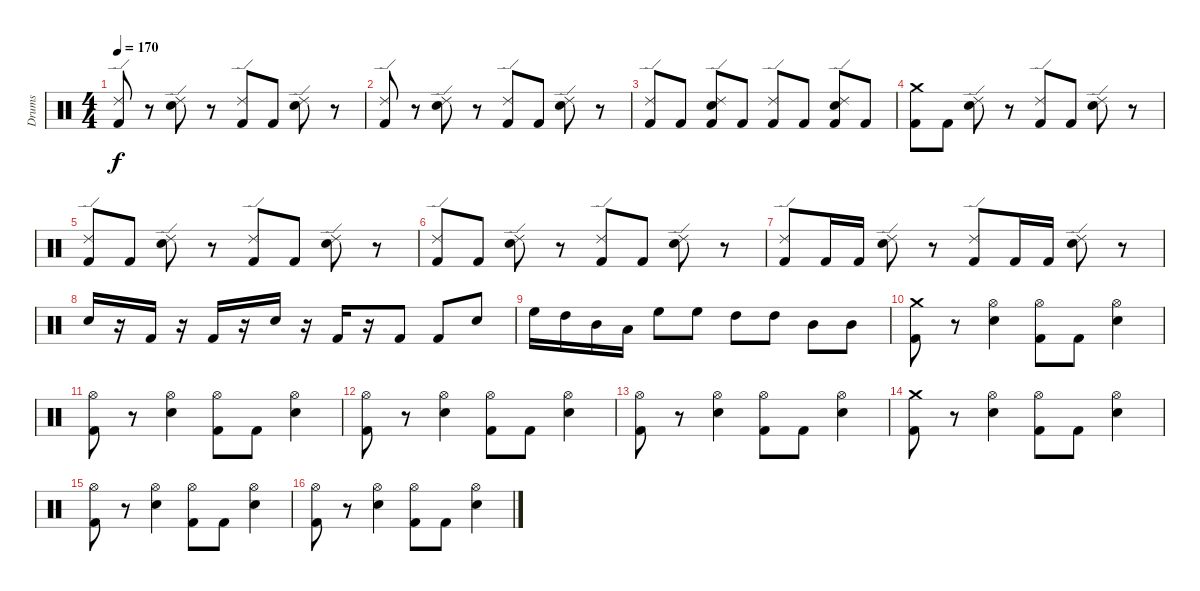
\track ("Drums" "Drums") {instrument percussion}
\staff {score}
\articulation defaults
\ts (4 4)
\tempo 170
\clef neutral
\ks c
("Ride (edge) 2" "Kick (hit) 2").8{dy f} r.8 ("Ride (edge) 2" "Electric Snare (hit)").8 r.8 ("Ride (edge) 2" "Kick (hit) 2").8 "Kick (hit) 2".8 ("Ride (edge) 2" "Electric Snare (hit)").8 r.8 |
("Ride (edge) 2" "Kick (hit) 2").8 r.8 ("Ride (edge) 2" "Electric Snare (hit)").8 r.8 ("Ride (edge) 2" "Kick (hit) 2").8 "Kick (hit) 2".8 ("Ride (edge) 2" "Electric Snare (hit)").8 r.8 |
("Ride (edge) 2" "Kick (hit) 2").8 "Kick (hit) 2".8 ("Kick (hit) 2" "Ride (edge) 2" "Electric Snare (hit)").8 "Kick (hit) 2".8 ("Kick (hit) 2" "Ride (edge) 2").8 "Kick (hit) 2".8 ("Kick (hit) 2" "Ride (edge) 2" "Electric Snare (hit)").8 "Kick (hit) 2".8 |
("Crash medium (hit)" "Kick (hit) 2").8 "Kick (hit) 2".8 ("Ride (edge) 2" "Electric Snare (hit)").8 r.8 ("Ride (edge) 2" "Kick (hit) 2").8 "Kick (hit) 2".8 ("Ride (edge) 2" "Electric Snare (hit)").8 r.8 |
("Ride (edge) 2" "Kick (hit) 2").8 "Kick (hit) 2".8 ("Ride (edge) 2" "Electric Snare (hit)").8 r.8 ("Ride (edge) 2" "Kick (hit) 2").8 "Kick (hit) 2".8 ("Ride (edge) 2" "Electric Snare (hit)").8 r.8 |
("Ride (edge) 2" "Kick (hit) 2").8 "Kick (hit) 2".8 ("Ride (edge) 2" "Electric Snare (hit)").8 r.8 ("Ride (edge) 2" "Kick (hit) 2").8 "Kick (hit) 2".8 ("Ride (edge) 2" "Electric Snare (hit)").8 r.8 |
("Ride (edge) 2" "Kick (hit) 2").8 "Kick (hit) 2".16 "Kick (hit) 2".16 ("Ride (edge) 2" "Electric Snare (hit)").8 r.8 ("Ride (edge) 2" "Kick (hit) 2").8 "Kick (hit) 2".16 "Kick (hit) 2".16 ("Ride (edge) 2" "Electric Snare (hit)").8 r.8 |
"Electric Snare (hit)".16 r.16 "Kick (hit) 2".16 r.16 "Kick (hit) 2".16 r.16 "Electric Snare (hit)".16 r.16 "Kick (hit) 2".16 r.16 "Kick (hit) 2".8 "Kick (hit) 2".8 "Electric Snare (hit)".8 |
"High Floor Tom (hit)".16 "High Tom (hit)".16 "Mid Tom (hit)".16 "Low Tom (hit)".16 "High Floor Tom (hit)".8 "High Floor Tom (hit)".8 "High Tom (hit)".8 "High Tom (hit)".8 "Mid Tom (hit)".8 "Mid Tom (hit)".8 |
("Kick (hit) 2" "Crash medium (hit)").8 r.8 ("Hi-Hat (open)" "Electric Snare (hit)").4 ("Hi-Hat (open)" "Kick (hit) 2").8 "Kick (hit) 2".8 ("Hi-Hat (open)" "Electric Snare (hit)").4 |
("Hi-Hat (open)" "Kick (hit) 2").8 r.8 ("Hi-Hat (open)" "Electric Snare (hit)").4 ("Hi-Hat (open)" "Kick (hit) 2").8 "Kick (hit) 2".8 ("Hi-Hat (open)" "Electric Snare (hit)").4 |
("Hi-Hat (open)" "Kick (hit) 2").8 r.8 ("Hi-Hat (open)" "Electric Snare (hit)").4 ("Hi-Hat (open)" "Kick (hit) 2").8 "Kick (hit) 2".8 ("Hi-Hat (open)" "Electric Snare (hit)").4 |
("Hi-Hat (open)" "Kick (hit) 2").8 r.8 ("Hi-Hat (open)" "Electric Snare (hit)").4 ("Hi-Hat (open)" "Kick (hit) 2").8 "Kick (hit) 2".8 ("Hi-Hat (open)" "Electric Snare (hit)").4 |
("Kick (hit) 2" "Crash medium (hit)").8 r.8 ("Hi-Hat (open)" "Electric Snare (hit)").4 ("Hi-Hat (open)" "Kick (hit) 2").8 "Kick (hit) 2".8 ("Hi-Hat (open)" "Electric Snare (hit)").4 |
("Hi-Hat (open)" "Kick (hit) 2").8 r.8 ("Hi-Hat (open)" "Electric Snare (hit)").4 ("Hi-Hat (open)" "Kick (hit) 2").8 "Kick (hit) 2".8 ("Hi-Hat (open)" "Electric Snare (hit)").4 |
("Hi-Hat (open)" "Kick (hit) 2").8 r.8 ("Hi-Hat (open)" "Electric Snare (hit)").4 ("Hi-Hat (open)" "Kick (hit) 2").8 "Kick (hit) 2".8 ("Electric Snare (hit)" "Hi-Hat (open)").4
